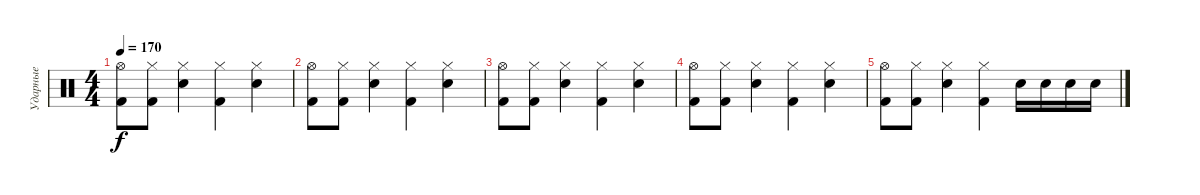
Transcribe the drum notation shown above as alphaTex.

\track ("Ударные" "Ударные") {instrument percussion}
\staff {score}
\articulation defaults
\ts (4 4)
\tempo 170
\clef neutral
\ks c
("Hi-Hat (open)" "Kick (hit) 2").8{dy f} ("Hi-Hat (closed)" "Kick (hit) 2").8 ("Snare (hit) 2" "Hi-Hat (closed)").4 ("Hi-Hat (closed)" "Kick (hit) 2").4 ("Snare (hit) 2" "Hi-Hat (closed)").4 |
("Hi-Hat (open)" "Kick (hit) 2").8 ("Hi-Hat (closed)" "Kick (hit) 2").8 ("Snare (hit) 2" "Hi-Hat (closed)").4 ("Hi-Hat (closed)" "Kick (hit) 2").4 ("Snare (hit) 2" "Hi-Hat (closed)").4 |
("Hi-Hat (open)" "Kick (hit) 2").8 ("Hi-Hat (closed)" "Kick (hit) 2").8 ("Snare (hit) 2" "Hi-Hat (closed)").4 ("Hi-Hat (closed)" "Kick (hit) 2").4 ("Snare (hit) 2" "Hi-Hat (closed)").4 |
("Hi-Hat (open)" "Kick (hit) 2").8 ("Hi-Hat (closed)" "Kick (hit) 2").8 ("Snare (hit) 2" "Hi-Hat (closed)").4 ("Hi-Hat (closed)" "Kick (hit) 2").4 ("Snare (hit) 2" "Hi-Hat (closed)").4 |
("Hi-Hat (open)" "Kick (hit) 2").8 ("Hi-Hat (closed)" "Kick (hit) 2").8 ("Snare (hit) 2" "Hi-Hat (closed)").4 ("Hi-Hat (closed)" "Kick (hit) 2").4 "Snare (hit) 2".16 "Snare (hit) 2".16 "Snare (hit) 2".16 "Snare (hit) 2".16
